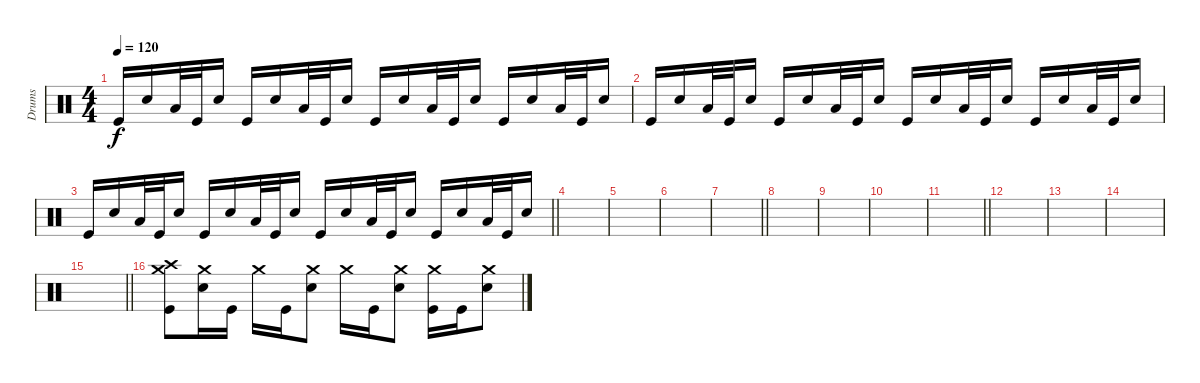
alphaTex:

\track ("Drums" "Drums") {instrument percussion}
\staff
\articulation defaults
\ts (4 4)
\tempo 120
\clef neutral
\ks c "Kick (hit)".16{dy f} "Electric Snare (hit)".16 "Low Floor Tom (hit)".32 "Kick (hit)".32 "Electric Snare (hit)".16 "Kick (hit)".16 "Electric Snare (hit)".16 "Low Floor Tom (hit)".32 "Kick (hit)".32 "Electric Snare (hit)".16 "Kick (hit)".16 "Electric Snare (hit)".16 "Low Floor Tom (hit)".32 "Kick (hit)".32 "Electric Snare (hit)".16 "Kick (hit)".16 "Electric Snare (hit)".16 "Low Floor Tom (hit)".32 "Kick (hit)".32 "Electric Snare (hit)".16
|
"Kick (hit)".16 "Electric Snare (hit)".16 "Low Floor Tom (hit)".32 "Kick (hit)".32 "Electric Snare (hit)".16 "Kick (hit)".16 "Electric Snare (hit)".16 "Low Floor Tom (hit)".32 "Kick (hit)".32 "Electric Snare (hit)".16 "Kick (hit)".16 "Electric Snare (hit)".16 "Low Floor Tom (hit)".32 "Kick (hit)".32 "Electric Snare (hit)".16 "Kick (hit)".16 "Electric Snare (hit)".16 "Low Floor Tom (hit)".32 "Kick (hit)".32 "Electric Snare (hit)".16 |
\barLineRight lightlight "Kick (hit)".16 "Electric Snare (hit)".16 "Low Floor Tom (hit)".32 "Kick (hit)".32 "Electric Snare (hit)".16 "Kick (hit)".16 "Electric Snare (hit)".16 "Low Floor Tom (hit)".32 "Kick (hit)".32 "Electric Snare (hit)".16 "Kick (hit)".16 "Electric Snare (hit)".16 "Low Floor Tom (hit)".32 "Kick (hit)".32 "Electric Snare (hit)".16 "Kick (hit)".16 "Electric Snare (hit)".16 "Low Floor Tom (hit)".32 "Kick (hit)".32 "Electric Snare (hit)".16
|
|
|
|
\barLineRight lightlight
|
|
|
|
\barLineRight lightlight
|
|
|
|
\barLineRight lightlight
|
("Crash high (hit)" "Crash medium (hit)" "Kick (hit)").8 ("Crash medium (hit)" "Electric Snare (hit)").16 "Kick (hit)".16 "Crash medium (hit)".16 "Kick (hit)".16 ("Crash medium (hit)" "Electric Snare (hit)").8 "Crash medium (hit)".16 "Kick (hit)".16 ("Crash medium (hit)" "Electric Snare (hit)").8 ("Crash medium (hit)" "Kick (hit)").16 "Kick (hit)".16 ("Crash medium (hit)" "Electric Snare (hit)").8
